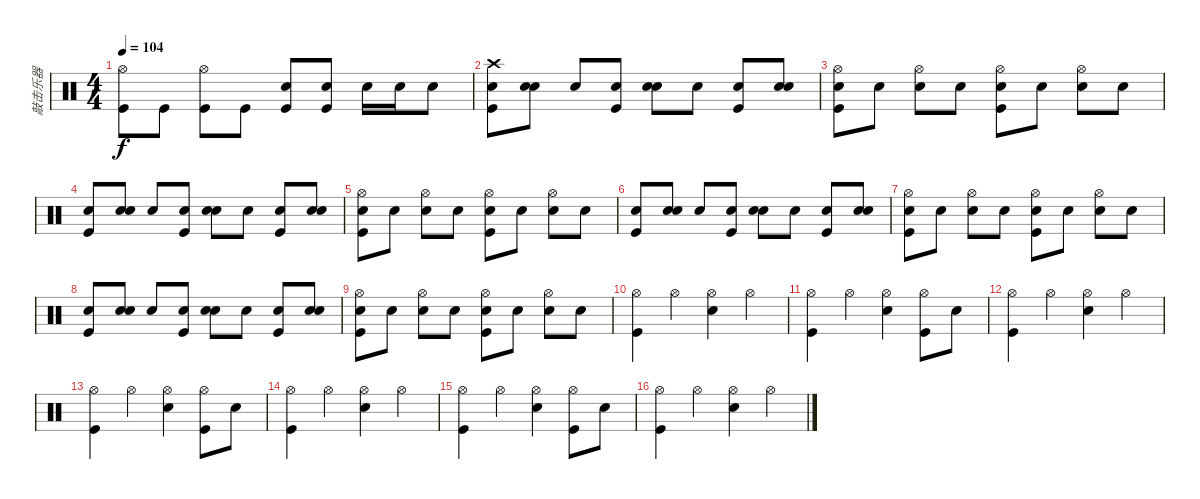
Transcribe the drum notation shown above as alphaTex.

\track ("敲击乐器" "敲击乐器") {instrument percussion}
\staff {score}
\articulation defaults
\ts (4 4)
\tempo 104
\clef neutral
\ks c
("Hi-Hat (open)" "Kick (hit)").8{dy f} "Kick (hit)".8 ("Hi-Hat (open)" "Kick (hit)").8 "Kick (hit)".8 ("Snare (hit) 2" "Kick (hit)").8 ("Snare (hit) 2" "Kick (hit)").8 "Electric Snare (hit)".16 "Snare (hit) 2".16 "Snare (hit) 2".8 |
("Crash high (hit)" "Snare (hit)" "Kick (hit)").8 ("Snare (hit) 2" "Snare (hit)").8 "Snare (hit)".8 ("Snare (hit)" "Kick (hit)").8 ("Snare (hit) 2" "Snare (hit)").8 "Snare (hit)".8 ("Snare (hit)" "Kick (hit)").8 ("Snare (hit) 2" "Snare (hit)").8 |
("Hi-Hat (open)" "Snare (hit)" "Kick (hit)").8 "Snare (hit)".8 ("Hi-Hat (open)" "Snare (hit)").8 "Snare (hit)".8 ("Hi-Hat (open)" "Snare (hit)" "Kick (hit)").8 "Snare (hit)".8 ("Hi-Hat (open)" "Snare (hit)").8 "Snare (hit)".8 |
("Snare (hit)" "Kick (hit)").8 ("Snare (hit) 2" "Snare (hit)").8 "Snare (hit)".8 ("Snare (hit)" "Kick (hit)").8 ("Snare (hit) 2" "Snare (hit)").8 "Snare (hit)".8 ("Snare (hit)" "Kick (hit)").8 ("Snare (hit) 2" "Snare (hit)").8 |
("Hi-Hat (open)" "Snare (hit)" "Kick (hit)").8 "Snare (hit)".8 ("Hi-Hat (open)" "Snare (hit)").8 "Snare (hit)".8 ("Hi-Hat (open)" "Snare (hit)" "Kick (hit)").8 "Snare (hit)".8 ("Hi-Hat (open)" "Snare (hit)").8 "Snare (hit)".8 |
("Snare (hit)" "Kick (hit)").8 ("Snare (hit) 2" "Snare (hit)").8 "Snare (hit)".8 ("Snare (hit)" "Kick (hit)").8 ("Snare (hit) 2" "Snare (hit)").8 "Snare (hit)".8 ("Snare (hit)" "Kick (hit)").8 ("Snare (hit) 2" "Snare (hit)").8 |
("Hi-Hat (open)" "Snare (hit)" "Kick (hit)").8 "Snare (hit)".8 ("Hi-Hat (open)" "Snare (hit)").8 "Snare (hit)".8 ("Hi-Hat (open)" "Snare (hit)" "Kick (hit)").8 "Snare (hit)".8 ("Hi-Hat (open)" "Snare (hit)").8 "Snare (hit)".8 |
("Snare (hit)" "Kick (hit)").8 ("Snare (hit) 2" "Snare (hit)").8 "Snare (hit)".8 ("Snare (hit)" "Kick (hit)").8 ("Snare (hit) 2" "Snare (hit)").8 "Snare (hit)".8 ("Snare (hit)" "Kick (hit)").8 ("Snare (hit) 2" "Snare (hit)").8 |
("Hi-Hat (open)" "Snare (hit)" "Kick (hit)").8 "Snare (hit)".8 ("Hi-Hat (open)" "Snare (hit)").8 "Snare (hit)".8 ("Hi-Hat (open)" "Snare (hit)" "Kick (hit)").8 "Snare (hit)".8 ("Hi-Hat (open)" "Snare (hit)").8 "Snare (hit)".8 |
("Hi-Hat (open)" "Kick (hit)").4 "Hi-Hat (open)".4 ("Hi-Hat (open)" "Snare (hit) 2").4 "Hi-Hat (open)".4 |
("Hi-Hat (open)" "Kick (hit)").4 "Hi-Hat (open)".4 ("Hi-Hat (open)" "Snare (hit) 2").4 ("Hi-Hat (open)" "Kick (hit)").8 "Electric Snare (hit)".8 |
("Hi-Hat (open)" "Kick (hit)").4 "Hi-Hat (open)".4 ("Hi-Hat (open)" "Snare (hit) 2").4 "Hi-Hat (open)".4 |
("Hi-Hat (open)" "Kick (hit)").4 "Hi-Hat (open)".4 ("Hi-Hat (open)" "Snare (hit) 2").4 ("Hi-Hat (open)" "Kick (hit)").8 "Electric Snare (hit)".8 |
("Hi-Hat (open)" "Kick (hit)").4 "Hi-Hat (open)".4 ("Hi-Hat (open)" "Snare (hit) 2").4 "Hi-Hat (open)".4 |
("Hi-Hat (open)" "Kick (hit)").4 "Hi-Hat (open)".4 ("Hi-Hat (open)" "Snare (hit) 2").4 ("Hi-Hat (open)" "Kick (hit)").8 "Electric Snare (hit)".8 |
("Hi-Hat (open)" "Kick (hit)").4 "Hi-Hat (open)".4 ("Hi-Hat (open)" "Snare (hit) 2").4 "Hi-Hat (open)".4
